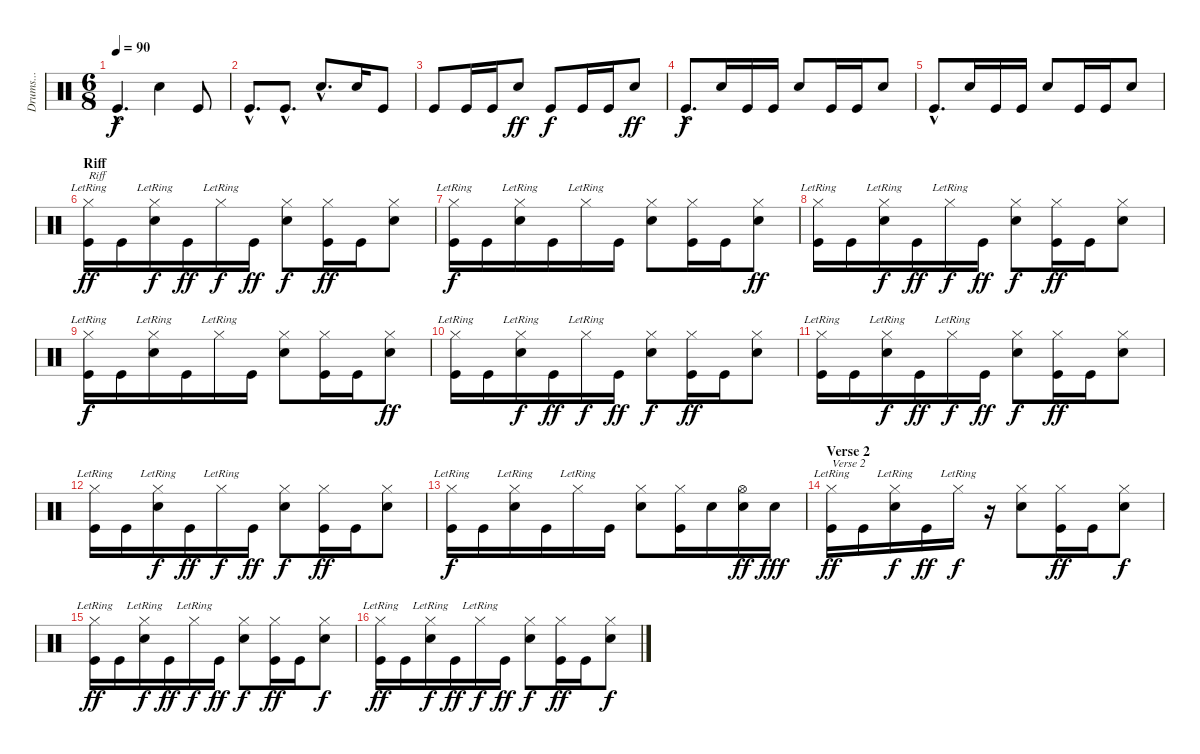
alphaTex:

\track ("Drums..." "Drums...") {instrument percussion}
\staff {score}
\articulation defaults
\ts (6 8)
\tempo 90
\clef neutral
\ks c "Kick (hit)"{hac}.4{d dy f} "Electric Snare (hit)".4 "Kick (hit)".8
|
"Kick (hit)"{hac}.8{d} "Kick (hit)"{hac}.8{d} "Electric Snare (hit)"{hac}.8{d} "Electric Snare (hit)".16 "Kick (hit)".8 |
"Kick (hit)".8 "Kick (hit)".16 "Kick (hit)".16 "Electric Snare (hit)".8{dy ff} "Kick (hit)".8{dy f} "Kick (hit)".16 "Kick (hit)".16 "Electric Snare (hit)".8{dy ff} |
"Kick (hit)"{hac}.8{d dy f} "Electric Snare (hit)".16 "Kick (hit)".16 "Kick (hit)".16 "Electric Snare (hit)".8 "Kick (hit)".16 "Kick (hit)".16 "Electric Snare (hit)".8 |
"Kick (hit)"{hac}.8{d} "Electric Snare (hit)".16 "Kick (hit)".16 "Kick (hit)".16 "Electric Snare (hit)".8 "Kick (hit)".16 "Kick (hit)".16 "Electric Snare (hit)".8 |
\section ("" "Riff")
("Hi-Hat (closed)"{lr} "Kick (hit)").16{txt "Riff" dy ff} "Kick (hit)".16 ("Hi-Hat (closed)"{lr} "Electric Snare (hit)").16{dy f} "Kick (hit)".16{dy ff} "Hi-Hat (closed)"{lr}.16{dy f} "Kick (hit)".16{dy ff} ("Hi-Hat (closed)" "Electric Snare (hit)").8{dy f} ("Hi-Hat (closed)" "Kick (hit)").16{dy ff} "Kick (hit)".16 ("Hi-Hat (closed)" "Electric Snare (hit)").8 |
("Hi-Hat (closed)"{lr} "Kick (hit)").16{dy f} "Kick (hit)".16 ("Hi-Hat (closed)"{lr} "Electric Snare (hit)").16 "Kick (hit)".16 "Hi-Hat (closed)"{lr}.16 "Kick (hit)".16 ("Hi-Hat (closed)" "Electric Snare (hit)").8 ("Hi-Hat (closed)" "Kick (hit)").16 "Kick (hit)".16 ("Hi-Hat (closed)" "Electric Snare (hit)").8{dy ff} |
("Hi-Hat (closed)"{lr} "Kick (hit)").16 "Kick (hit)".16 ("Hi-Hat (closed)"{lr} "Electric Snare (hit)").16{dy f} "Kick (hit)".16{dy ff} "Hi-Hat (closed)"{lr}.16{dy f} "Kick (hit)".16{dy ff} ("Hi-Hat (closed)" "Electric Snare (hit)").8{dy f} ("Hi-Hat (closed)" "Kick (hit)").16{dy ff} "Kick (hit)".16 ("Hi-Hat (closed)" "Electric Snare (hit)").8 |
("Hi-Hat (closed)"{lr} "Kick (hit)").16{dy f} "Kick (hit)".16 ("Hi-Hat (closed)"{lr} "Electric Snare (hit)").16 "Kick (hit)".16 "Hi-Hat (closed)"{lr}.16 "Kick (hit)".16 ("Hi-Hat (closed)" "Electric Snare (hit)").8 ("Hi-Hat (closed)" "Kick (hit)").16 "Kick (hit)".16 ("Hi-Hat (closed)" "Electric Snare (hit)").8{dy ff} |
("Hi-Hat (closed)"{lr} "Kick (hit)").16 "Kick (hit)".16 ("Hi-Hat (closed)"{lr} "Electric Snare (hit)").16{dy f} "Kick (hit)".16{dy ff} "Hi-Hat (closed)"{lr}.16{dy f} "Kick (hit)".16{dy ff} ("Hi-Hat (closed)" "Electric Snare (hit)").8{dy f} ("Hi-Hat (closed)" "Kick (hit)").16{dy ff} "Kick (hit)".16 ("Hi-Hat (closed)" "Electric Snare (hit)").8 |
("Hi-Hat (closed)"{lr} "Kick (hit)").16 "Kick (hit)".16 ("Hi-Hat (closed)"{lr} "Electric Snare (hit)").16{dy f} "Kick (hit)".16{dy ff} "Hi-Hat (closed)"{lr}.16{dy f} "Kick (hit)".16{dy ff} ("Hi-Hat (closed)" "Electric Snare (hit)").8{dy f} ("Hi-Hat (closed)" "Kick (hit)").16{dy ff} "Kick (hit)".16 ("Hi-Hat (closed)" "Electric Snare (hit)").8 |
("Hi-Hat (closed)"{lr} "Kick (hit)").16 "Kick (hit)".16 ("Hi-Hat (closed)"{lr} "Electric Snare (hit)").16{dy f} "Kick (hit)".16{dy ff} "Hi-Hat (closed)"{lr}.16{dy f} "Kick (hit)".16{dy ff} ("Hi-Hat (closed)" "Electric Snare (hit)").8{dy f} ("Hi-Hat (closed)" "Kick (hit)").16{dy ff} "Kick (hit)".16 ("Hi-Hat (closed)" "Electric Snare (hit)").8 |
("Hi-Hat (closed)"{lr} "Kick (hit)").16{dy f} "Kick (hit)".16 ("Hi-Hat (closed)"{lr} "Electric Snare (hit)").16 "Kick (hit)".16 "Hi-Hat (closed)"{lr}.16 "Kick (hit)".16 ("Hi-Hat (closed)" "Electric Snare (hit)").8 ("Hi-Hat (closed)" "Kick (hit)").16 "Electric Snare (hit)".16 ("Hi-Hat (open)" "Electric Snare (hit)").16{dy ff} "Electric Snare (hit)".16{dy fff} |
\section ("" "Verse 2")
("Hi-Hat (closed)"{lr} "Kick (hit)").16{txt "Verse 2" dy ff} "Kick (hit)".16 ("Hi-Hat (closed)"{lr} "Electric Snare (hit)").16{dy f} "Kick (hit)".16{dy ff} "Hi-Hat (closed)"{lr}.16{dy f} r.16 ("Hi-Hat (closed)" "Electric Snare (hit)").8 ("Hi-Hat (closed)" "Kick (hit)").16{dy ff} "Kick (hit)".16 ("Hi-Hat (closed)" "Electric Snare (hit)").8{dy f} |
("Hi-Hat (closed)"{lr} "Kick (hit)").16{dy ff} "Kick (hit)".16 ("Hi-Hat (closed)"{lr} "Electric Snare (hit)").16{dy f} "Kick (hit)".16{dy ff} "Hi-Hat (closed)"{lr}.16{dy f} "Kick (hit)".16{dy ff} ("Hi-Hat (closed)" "Electric Snare (hit)").8{dy f} ("Hi-Hat (closed)" "Kick (hit)").16{dy ff} "Kick (hit)".16 ("Hi-Hat (closed)" "Electric Snare (hit)").8{dy f} |
("Hi-Hat (closed)"{lr} "Kick (hit)").16{dy ff} "Kick (hit)".16 ("Hi-Hat (closed)"{lr} "Electric Snare (hit)").16{dy f} "Kick (hit)".16{dy ff} "Hi-Hat (closed)"{lr}.16{dy f} "Kick (hit)".16{dy ff} ("Hi-Hat (closed)" "Electric Snare (hit)").8{dy f} ("Hi-Hat (closed)" "Kick (hit)").16{dy ff} "Kick (hit)".16 ("Hi-Hat (closed)" "Electric Snare (hit)").8{dy f}
